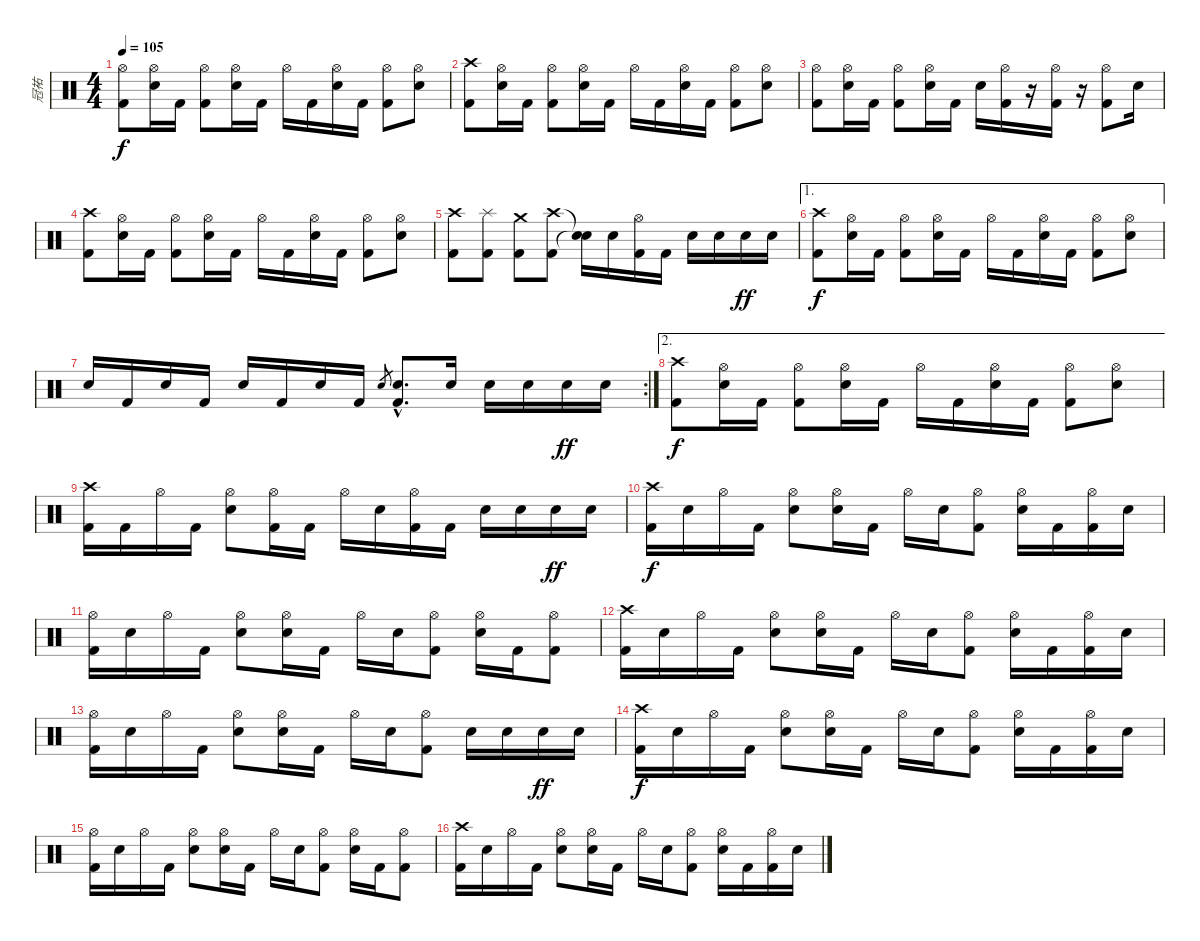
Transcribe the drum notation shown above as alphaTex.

\track ("冠祐" "冠祐") {instrument percussion}
\staff {score}
\articulation defaults
\ts (4 4)
\tempo 105
\clef neutral
\ks c
("Hi-Hat (open)" "Kick (hit) 2").8{dy f} ("Hi-Hat (open)" "Electric Snare (hit)").16 "Kick (hit) 2".16 ("Hi-Hat (open)" "Kick (hit) 2").8 ("Hi-Hat (open)" "Electric Snare (hit)").16 "Kick (hit) 2".16 "Hi-Hat (open)".16 "Kick (hit) 2".16 ("Hi-Hat (open)" "Electric Snare (hit)").16 "Kick (hit) 2".16 ("Hi-Hat (open)" "Kick (hit) 2").8 ("Hi-Hat (open)" "Electric Snare (hit)").8 |
("Crash high (hit)" "Kick (hit) 2").8 ("Hi-Hat (open)" "Electric Snare (hit)").16 "Kick (hit) 2".16 ("Hi-Hat (open)" "Kick (hit) 2").8 ("Hi-Hat (open)" "Electric Snare (hit)").16 "Kick (hit) 2".16 "Hi-Hat (open)".16 "Kick (hit) 2".16 ("Hi-Hat (open)" "Electric Snare (hit)").16 "Kick (hit) 2".16 ("Hi-Hat (open)" "Kick (hit) 2").8 ("Hi-Hat (open)" "Electric Snare (hit)").8 |
("Hi-Hat (open)" "Kick (hit) 2").8 ("Hi-Hat (open)" "Electric Snare (hit)").16 "Kick (hit) 2".16 ("Hi-Hat (open)" "Kick (hit) 2").8 ("Hi-Hat (open)" "Electric Snare (hit)").16 "Kick (hit) 2".16 "Electric Snare (hit)".16 ("Hi-Hat (open)" "Kick (hit) 2").16 r.16 ("Hi-Hat (open)" "Kick (hit) 2").16 r.16 ("Hi-Hat (open)" "Kick (hit) 2").8 "Electric Snare (hit)".16 |
("Crash high (hit)" "Kick (hit) 2").8 ("Hi-Hat (open)" "Electric Snare (hit)").16 "Kick (hit) 2".16 ("Hi-Hat (open)" "Kick (hit) 2").8 ("Hi-Hat (open)" "Electric Snare (hit)").16 "Kick (hit) 2".16 "Hi-Hat (open)".16 "Kick (hit) 2".16 ("Hi-Hat (open)" "Electric Snare (hit)").16 "Kick (hit) 2".16 ("Hi-Hat (open)" "Kick (hit) 2").8 ("Hi-Hat (open)" "Electric Snare (hit)").8 |
("Crash high (hit)" "Kick (hit) 2").8 ("Splash (hit)" "Kick (hit) 2").8 ("Crash medium (hit)" "Kick (hit) 2").8 ("Crash high (hit)" "Kick (hit) 2").8 ("Snare (hit)"{t} "Snare (hit)"{t}).16 "Electric Snare (hit)".16 ("Hi-Hat (open)" "Kick (hit) 2").16 "Kick (hit) 2".16 "Electric Snare (hit)".16 "Electric Snare (hit)".16 "Electric Snare (hit)".16{dy ff} "Electric Snare (hit)".16 |
\ae 1
("Crash high (hit)" "Kick (hit) 2").8{dy f} ("Hi-Hat (open)" "Electric Snare (hit)").16 "Kick (hit) 2".16 ("Hi-Hat (open)" "Kick (hit) 2").8 ("Hi-Hat (open)" "Electric Snare (hit)").16 "Kick (hit) 2".16 "Hi-Hat (open)".16 "Kick (hit) 2".16 ("Hi-Hat (open)" "Electric Snare (hit)").16 "Kick (hit) 2".16 ("Hi-Hat (open)" "Kick (hit) 2").8 ("Hi-Hat (open)" "Electric Snare (hit)").8 |
\rc 2 "Electric Snare (hit)".16 "Kick (hit) 2".16 "Electric Snare (hit)".16 "Kick (hit) 2".16 "Electric Snare (hit)".16 "Kick (hit) 2".16 "Electric Snare (hit)".16 "Kick (hit) 2".16 "Electric Snare (hit)".8{gr}
("Electric Snare (hit)"{hac} "Kick (hit) 2"{hac}).8{d} "Electric Snare (hit)".16 "Electric Snare (hit)".16 "Electric Snare (hit)".16 "Electric Snare (hit)".16{dy ff} "Electric Snare (hit)".16 |
\ae 2
("Crash high (hit)" "Kick (hit) 2").8{dy f} ("Hi-Hat (open)" "Electric Snare (hit)").16 "Kick (hit) 2".16 ("Hi-Hat (open)" "Kick (hit) 2").8 ("Hi-Hat (open)" "Electric Snare (hit)").16 "Kick (hit) 2".16 "Hi-Hat (open)".16 "Kick (hit) 2".16 ("Hi-Hat (open)" "Electric Snare (hit)").16 "Kick (hit) 2".16 ("Hi-Hat (open)" "Kick (hit) 2").8 ("Hi-Hat (open)" "Electric Snare (hit)").8 |
("Crash high (hit)" "Kick (hit) 2").16 "Kick (hit) 2".16 "Hi-Hat (open)".16 "Kick (hit) 2".16 ("Hi-Hat (open)" "Electric Snare (hit)").8 ("Hi-Hat (open)" "Kick (hit) 2").16 "Kick (hit) 2".16 "Hi-Hat (open)".16 "Electric Snare (hit)".16 ("Hi-Hat (open)" "Kick (hit) 2").16 "Kick (hit) 2".16 "Electric Snare (hit)".16 "Electric Snare (hit)".16 "Electric Snare (hit)".16{dy ff} "Electric Snare (hit)".16 |
("Crash high (hit)" "Kick (hit) 2").16{dy f} "Electric Snare (hit)".16 "Hi-Hat (open)".16 "Kick (hit) 2".16 ("Hi-Hat (open)" "Electric Snare (hit)").8 ("Hi-Hat (open)" "Electric Snare (hit)").16 "Kick (hit) 2".16 "Hi-Hat (open)".16 "Electric Snare (hit)".16 ("Hi-Hat (open)" "Kick (hit) 2").8 ("Hi-Hat (open)" "Electric Snare (hit)").16 "Kick (hit) 2".16 ("Hi-Hat (open)" "Kick (hit) 2").16 "Electric Snare (hit)".16 |
("Hi-Hat (open)" "Kick (hit) 2").16 "Electric Snare (hit)".16 "Hi-Hat (open)".16 "Kick (hit) 2".16 ("Hi-Hat (open)" "Electric Snare (hit)").8 ("Hi-Hat (open)" "Electric Snare (hit)").16 "Kick (hit) 2".16 "Hi-Hat (open)".16 "Electric Snare (hit)".16 ("Hi-Hat (open)" "Kick (hit) 2").8 ("Hi-Hat (open)" "Electric Snare (hit)").16 "Kick (hit) 2".16 ("Hi-Hat (open)" "Kick (hit) 2").8 |
("Crash high (hit)" "Kick (hit) 2").16 "Electric Snare (hit)".16 "Hi-Hat (open)".16 "Kick (hit) 2".16 ("Hi-Hat (open)" "Electric Snare (hit)").8 ("Hi-Hat (open)" "Electric Snare (hit)").16 "Kick (hit) 2".16 "Hi-Hat (open)".16 "Electric Snare (hit)".16 ("Hi-Hat (open)" "Kick (hit) 2").8 ("Hi-Hat (open)" "Electric Snare (hit)").16 "Kick (hit) 2".16 ("Hi-Hat (open)" "Kick (hit) 2").16 "Electric Snare (hit)".16 |
("Hi-Hat (open)" "Kick (hit) 2").16 "Electric Snare (hit)".16 "Hi-Hat (open)".16 "Kick (hit) 2".16 ("Hi-Hat (open)" "Electric Snare (hit)").8 ("Hi-Hat (open)" "Electric Snare (hit)").16 "Kick (hit) 2".16 "Hi-Hat (open)".16 "Electric Snare (hit)".16 ("Hi-Hat (open)" "Kick (hit) 2").8 "Electric Snare (hit)".16 "Electric Snare (hit)".16 "Electric Snare (hit)".16{dy ff} "Electric Snare (hit)".16 |
("Crash high (hit)" "Kick (hit) 2").16{dy f} "Electric Snare (hit)".16 "Hi-Hat (open)".16 "Kick (hit) 2".16 ("Hi-Hat (open)" "Electric Snare (hit)").8 ("Hi-Hat (open)" "Electric Snare (hit)").16 "Kick (hit) 2".16 "Hi-Hat (open)".16 "Electric Snare (hit)".16 ("Hi-Hat (open)" "Kick (hit) 2").8 ("Hi-Hat (open)" "Electric Snare (hit)").16 "Kick (hit) 2".16 ("Hi-Hat (open)" "Kick (hit) 2").16 "Electric Snare (hit)".16 |
("Hi-Hat (open)" "Kick (hit) 2").16 "Electric Snare (hit)".16 "Hi-Hat (open)".16 "Kick (hit) 2".16 ("Hi-Hat (open)" "Electric Snare (hit)").8 ("Hi-Hat (open)" "Electric Snare (hit)").16 "Kick (hit) 2".16 "Hi-Hat (open)".16 "Electric Snare (hit)".16 ("Hi-Hat (open)" "Kick (hit) 2").8 ("Hi-Hat (open)" "Electric Snare (hit)").16 "Kick (hit) 2".16 ("Hi-Hat (open)" "Kick (hit) 2").8 |
("Crash high (hit)" "Kick (hit) 2").16 "Electric Snare (hit)".16 "Hi-Hat (open)".16 "Kick (hit) 2".16 ("Hi-Hat (open)" "Electric Snare (hit)").8 ("Hi-Hat (open)" "Electric Snare (hit)").16 "Kick (hit) 2".16 "Hi-Hat (open)".16 "Electric Snare (hit)".16 ("Hi-Hat (open)" "Kick (hit) 2").8 ("Hi-Hat (open)" "Electric Snare (hit)").16 "Kick (hit) 2".16 ("Hi-Hat (open)" "Kick (hit) 2").16 "Electric Snare (hit)".16
